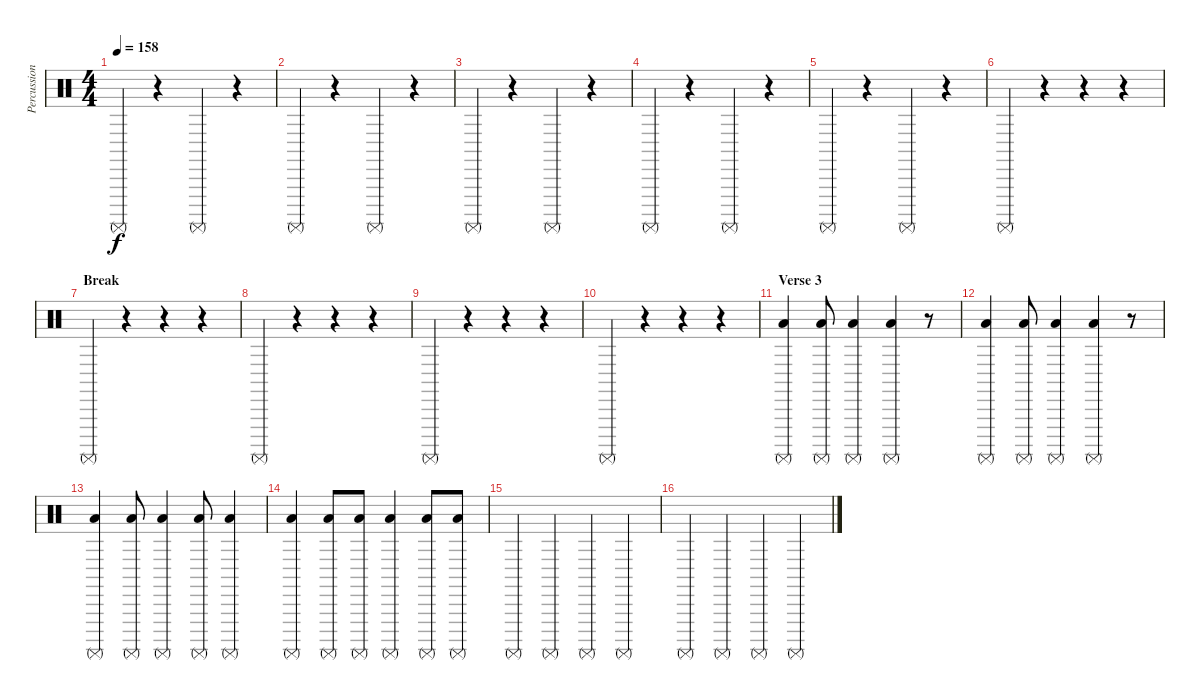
\track ("Percussion" "Percussion") {instrument percussion}
\staff {score}
\articulation defaults
\ts (4 4)
\tempo 158
\clef neutral
\ks c "Surdo (mute)".4{dy f}
r.4 "Surdo (mute)".4 r.4 |
"Surdo (mute)".4 r.4 "Surdo (mute)".4 r.4 |
"Surdo (mute)".4 r.4 "Surdo (mute)".4 r.4 |
"Surdo (mute)".4 r.4 "Surdo (mute)".4 r.4 |
"Surdo (mute)".4 r.4 "Surdo (mute)".4 r.4 |
"Surdo (mute)".4 r.4 r.4 r.4 |
\section ("" "Break")
"Surdo (mute)".4 r.4 r.4 r.4 |
"Surdo (mute)".4 r.4 r.4 r.4 |
"Surdo (mute)".4 r.4 r.4 r.4 |
"Surdo (mute)".4 r.4 r.4 r.4 |
\section ("" "Verse 3")
("Low Floor Tom (hit)" "Surdo (mute)").4 ("Low Floor Tom (hit)" "Surdo (mute)").8 ("Low Floor Tom (hit)" "Surdo (mute)").4 ("Low Floor Tom (hit)" "Surdo (mute)").4 r.8 |
("Low Floor Tom (hit)" "Surdo (mute)").4 ("Low Floor Tom (hit)" "Surdo (mute)").8 ("Low Floor Tom (hit)" "Surdo (mute)").4 ("Low Floor Tom (hit)" "Surdo (mute)").4 r.8 |
("Low Floor Tom (hit)" "Surdo (mute)").4 ("Low Floor Tom (hit)" "Surdo (mute)").8 ("Low Floor Tom (hit)" "Surdo (mute)").4 ("Low Floor Tom (hit)" "Surdo (mute)").8 ("Low Floor Tom (hit)" "Surdo (mute)").4 |
("Low Floor Tom (hit)" "Surdo (mute)").4 ("Low Floor Tom (hit)" "Surdo (mute)").8 ("Low Floor Tom (hit)" "Surdo (mute)").8 ("Low Floor Tom (hit)" "Surdo (mute)").4 ("Low Floor Tom (hit)" "Surdo (mute)").8 ("Low Floor Tom (hit)" "Surdo (mute)").8 |
"Surdo (mute)".4 "Surdo (mute)".4 "Surdo (mute)".4 "Surdo (mute)".4 |
"Surdo (mute)".4 "Surdo (mute)".4 "Surdo (mute)".4 "Surdo (mute)".4
